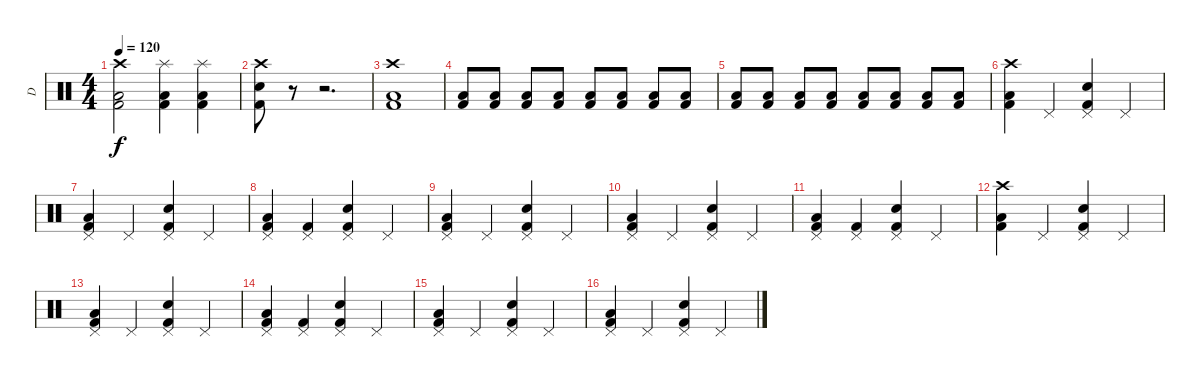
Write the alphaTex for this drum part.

\track ("D" "D") {instrument percussion}
\staff {score}
\articulation defaults
\ts (4 4)
\tempo 120
\clef neutral
\ks c
("Crash high (hit)" "Low Floor Tom (hit)" "Kick (hit) 2").2{dy f} ("Splash (hit)" "Low Floor Tom (hit)" "Kick (hit) 2").4 ("Splash (hit)" "Low Floor Tom (hit)" "Kick (hit) 2").4 |
("Crash high (hit)" "Snare (hit) 2" "Kick (hit) 2").8 r.8 r.2{d} |
("Crash high (hit)" "Low Floor Tom (hit)" "Kick (hit) 2").1 |
("Low Tom (hit)" "Kick (hit) 2").8{volume 7} ("Low Tom (hit)" "Kick (hit) 2").8{volume 13} ("Low Tom (hit)" "Kick (hit) 2").8 ("Low Tom (hit)" "Kick (hit) 2").8 ("Low Tom (hit)" "Kick (hit) 2").8 ("Low Tom (hit)" "Kick (hit) 2").8 ("Low Tom (hit)" "Kick (hit) 2").8 ("Low Tom (hit)" "Kick (hit) 2").8 |
("Low Tom (hit)" "Kick (hit) 2").8 ("Low Tom (hit)" "Kick (hit) 2").8 ("Low Tom (hit)" "Kick (hit) 2").8 ("Low Tom (hit)" "Kick (hit) 2").8 ("Low Tom (hit)" "Kick (hit) 2").8 ("Low Tom (hit)" "Kick (hit) 2").8 ("Low Tom (hit)" "Kick (hit) 2").8 ("Low Tom (hit)" "Kick (hit) 2").8 |
("Crash high (hit)" "Low Floor Tom (hit)" "Kick (hit) 2").4 "Pedal Hi-Hat (hit)".4 ("Pedal Hi-Hat (hit)" "Snare (hit) 2" "Kick (hit) 2").4 "Pedal Hi-Hat (hit)".4 |
("Pedal Hi-Hat (hit)" "Low Floor Tom (hit)" "Kick (hit) 2").4 "Pedal Hi-Hat (hit)".4 ("Pedal Hi-Hat (hit)" "Snare (hit) 2" "Kick (hit) 2").4 "Pedal Hi-Hat (hit)".4 |
("Pedal Hi-Hat (hit)" "Low Floor Tom (hit)" "Kick (hit) 2").4 ("Pedal Hi-Hat (hit)" "Kick (hit) 2").4 ("Pedal Hi-Hat (hit)" "Snare (hit) 2" "Kick (hit) 2").4 "Pedal Hi-Hat (hit)".4 |
("Pedal Hi-Hat (hit)" "Low Floor Tom (hit)" "Kick (hit) 2").4 "Pedal Hi-Hat (hit)".4 ("Pedal Hi-Hat (hit)" "Snare (hit) 2" "Kick (hit) 2").4 "Pedal Hi-Hat (hit)".4 |
("Pedal Hi-Hat (hit)" "Low Floor Tom (hit)" "Kick (hit) 2").4 "Pedal Hi-Hat (hit)".4 ("Pedal Hi-Hat (hit)" "Snare (hit) 2" "Kick (hit) 2").4 "Pedal Hi-Hat (hit)".4 |
("Pedal Hi-Hat (hit)" "Low Floor Tom (hit)" "Kick (hit) 2").4 ("Pedal Hi-Hat (hit)" "Kick (hit) 2").4 ("Pedal Hi-Hat (hit)" "Snare (hit) 2" "Kick (hit) 2").4 "Pedal Hi-Hat (hit)".4 |
("Crash high (hit)" "Low Floor Tom (hit)" "Kick (hit) 2").4 "Pedal Hi-Hat (hit)".4 ("Pedal Hi-Hat (hit)" "Snare (hit) 2" "Kick (hit) 2").4 "Pedal Hi-Hat (hit)".4 |
("Pedal Hi-Hat (hit)" "Low Floor Tom (hit)" "Kick (hit) 2").4 "Pedal Hi-Hat (hit)".4 ("Pedal Hi-Hat (hit)" "Snare (hit) 2" "Kick (hit) 2").4 "Pedal Hi-Hat (hit)".4 |
("Pedal Hi-Hat (hit)" "Low Floor Tom (hit)" "Kick (hit) 2").4 ("Pedal Hi-Hat (hit)" "Kick (hit) 2").4 ("Pedal Hi-Hat (hit)" "Snare (hit) 2" "Kick (hit) 2").4 "Pedal Hi-Hat (hit)".4 |
("Pedal Hi-Hat (hit)" "Low Floor Tom (hit)" "Kick (hit) 2").4 "Pedal Hi-Hat (hit)".4 ("Pedal Hi-Hat (hit)" "Snare (hit) 2" "Kick (hit) 2").4 "Pedal Hi-Hat (hit)".4 |
("Pedal Hi-Hat (hit)" "Low Floor Tom (hit)" "Kick (hit) 2").4 "Pedal Hi-Hat (hit)".4 ("Pedal Hi-Hat (hit)" "Snare (hit) 2" "Kick (hit) 2").4 "Pedal Hi-Hat (hit)".4
